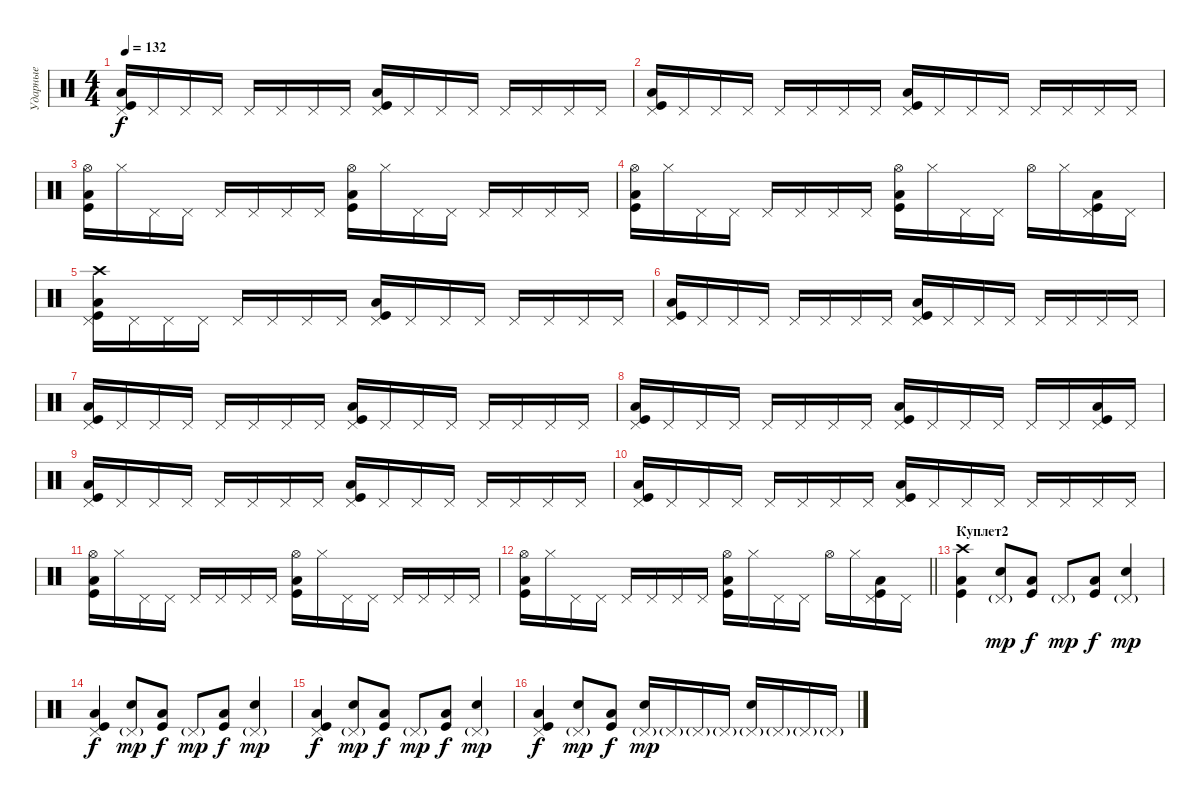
\track ("Ударные" "Ударные") {instrument percussion}
\staff {score}
\articulation defaults
\ts (4 4)
\tempo 132
\clef neutral
\ks c
("Pedal Hi-Hat (hit)" "Low Tom (hit)" "Kick (hit)").16{dy f} "Pedal Hi-Hat (hit)".16 "Pedal Hi-Hat (hit)".16 "Pedal Hi-Hat (hit)".16 "Pedal Hi-Hat (hit)".16 "Pedal Hi-Hat (hit)".16 "Pedal Hi-Hat (hit)".16 "Pedal Hi-Hat (hit)".16 ("Pedal Hi-Hat (hit)" "Low Tom (hit)" "Kick (hit)").16 "Pedal Hi-Hat (hit)".16 "Pedal Hi-Hat (hit)".16 "Pedal Hi-Hat (hit)".16 "Pedal Hi-Hat (hit)".16 "Pedal Hi-Hat (hit)".16 "Pedal Hi-Hat (hit)".16 "Pedal Hi-Hat (hit)".16 |
("Pedal Hi-Hat (hit)" "Low Tom (hit)" "Kick (hit)").16 "Pedal Hi-Hat (hit)".16 "Pedal Hi-Hat (hit)".16 "Pedal Hi-Hat (hit)".16 "Pedal Hi-Hat (hit)".16 "Pedal Hi-Hat (hit)".16 "Pedal Hi-Hat (hit)".16 "Pedal Hi-Hat (hit)".16 ("Pedal Hi-Hat (hit)" "Low Tom (hit)" "Kick (hit)").16 "Pedal Hi-Hat (hit)".16 "Pedal Hi-Hat (hit)".16 "Pedal Hi-Hat (hit)".16 "Pedal Hi-Hat (hit)".16 "Pedal Hi-Hat (hit)".16 "Pedal Hi-Hat (hit)".16 "Pedal Hi-Hat (hit)".16 |
("Hi-Hat (open)" "Low Tom (hit)" "Kick (hit)").16 "Hi-Hat (closed)".16 "Pedal Hi-Hat (hit)".16 "Pedal Hi-Hat (hit)".16 "Pedal Hi-Hat (hit)".16 "Pedal Hi-Hat (hit)".16 "Pedal Hi-Hat (hit)".16 "Pedal Hi-Hat (hit)".16 ("Hi-Hat (open)" "Low Tom (hit)" "Kick (hit)").16 "Hi-Hat (closed)".16 "Pedal Hi-Hat (hit)".16 "Pedal Hi-Hat (hit)".16 "Pedal Hi-Hat (hit)".16 "Pedal Hi-Hat (hit)".16 "Pedal Hi-Hat (hit)".16 "Pedal Hi-Hat (hit)".16 |
("Hi-Hat (open)" "Low Tom (hit)" "Kick (hit)").16 "Hi-Hat (closed)".16 "Pedal Hi-Hat (hit)".16 "Pedal Hi-Hat (hit)".16 "Pedal Hi-Hat (hit)".16 "Pedal Hi-Hat (hit)".16 "Pedal Hi-Hat (hit)".16 "Pedal Hi-Hat (hit)".16 ("Hi-Hat (open)" "Low Tom (hit)" "Kick (hit)").16 "Hi-Hat (closed)".16 "Pedal Hi-Hat (hit)".16 "Pedal Hi-Hat (hit)".16 "Hi-Hat (open)".16 "Hi-Hat (closed)".16 ("Pedal Hi-Hat (hit)" "Low Tom (hit)" "Kick (hit)").16 "Pedal Hi-Hat (hit)".16 |
("Pedal Hi-Hat (hit)" "Crash high (hit)" "Low Tom (hit)" "Kick (hit)").16 "Pedal Hi-Hat (hit)".16 "Pedal Hi-Hat (hit)".16 "Pedal Hi-Hat (hit)".16 "Pedal Hi-Hat (hit)".16 "Pedal Hi-Hat (hit)".16 "Pedal Hi-Hat (hit)".16 "Pedal Hi-Hat (hit)".16 ("Pedal Hi-Hat (hit)" "Low Tom (hit)" "Kick (hit)").16 "Pedal Hi-Hat (hit)".16 "Pedal Hi-Hat (hit)".16 "Pedal Hi-Hat (hit)".16 "Pedal Hi-Hat (hit)".16 "Pedal Hi-Hat (hit)".16 "Pedal Hi-Hat (hit)".16 "Pedal Hi-Hat (hit)".16 |
("Pedal Hi-Hat (hit)" "Low Tom (hit)" "Kick (hit)").16 "Pedal Hi-Hat (hit)".16 "Pedal Hi-Hat (hit)".16 "Pedal Hi-Hat (hit)".16 "Pedal Hi-Hat (hit)".16 "Pedal Hi-Hat (hit)".16 "Pedal Hi-Hat (hit)".16 "Pedal Hi-Hat (hit)".16 ("Pedal Hi-Hat (hit)" "Low Tom (hit)" "Kick (hit)").16 "Pedal Hi-Hat (hit)".16 "Pedal Hi-Hat (hit)".16 "Pedal Hi-Hat (hit)".16 "Pedal Hi-Hat (hit)".16 "Pedal Hi-Hat (hit)".16 "Pedal Hi-Hat (hit)".16 "Pedal Hi-Hat (hit)".16 |
("Pedal Hi-Hat (hit)" "Low Tom (hit)" "Kick (hit)").16 "Pedal Hi-Hat (hit)".16 "Pedal Hi-Hat (hit)".16 "Pedal Hi-Hat (hit)".16 "Pedal Hi-Hat (hit)".16 "Pedal Hi-Hat (hit)".16 "Pedal Hi-Hat (hit)".16 "Pedal Hi-Hat (hit)".16 ("Pedal Hi-Hat (hit)" "Low Tom (hit)" "Kick (hit)").16 "Pedal Hi-Hat (hit)".16 "Pedal Hi-Hat (hit)".16 "Pedal Hi-Hat (hit)".16 "Pedal Hi-Hat (hit)".16 "Pedal Hi-Hat (hit)".16 "Pedal Hi-Hat (hit)".16 "Pedal Hi-Hat (hit)".16 |
("Pedal Hi-Hat (hit)" "Low Tom (hit)" "Kick (hit)").16 "Pedal Hi-Hat (hit)".16 "Pedal Hi-Hat (hit)".16 "Pedal Hi-Hat (hit)".16 "Pedal Hi-Hat (hit)".16 "Pedal Hi-Hat (hit)".16 "Pedal Hi-Hat (hit)".16 "Pedal Hi-Hat (hit)".16 ("Pedal Hi-Hat (hit)" "Low Tom (hit)" "Kick (hit)").16 "Pedal Hi-Hat (hit)".16 "Pedal Hi-Hat (hit)".16 "Pedal Hi-Hat (hit)".16 "Pedal Hi-Hat (hit)".16 "Pedal Hi-Hat (hit)".16 ("Pedal Hi-Hat (hit)" "Low Tom (hit)" "Kick (hit)").16 "Pedal Hi-Hat (hit)".16 |
("Pedal Hi-Hat (hit)" "Low Tom (hit)" "Kick (hit)").16 "Pedal Hi-Hat (hit)".16 "Pedal Hi-Hat (hit)".16 "Pedal Hi-Hat (hit)".16 "Pedal Hi-Hat (hit)".16 "Pedal Hi-Hat (hit)".16 "Pedal Hi-Hat (hit)".16 "Pedal Hi-Hat (hit)".16 ("Pedal Hi-Hat (hit)" "Low Tom (hit)" "Kick (hit)").16 "Pedal Hi-Hat (hit)".16 "Pedal Hi-Hat (hit)".16 "Pedal Hi-Hat (hit)".16 "Pedal Hi-Hat (hit)".16 "Pedal Hi-Hat (hit)".16 "Pedal Hi-Hat (hit)".16 "Pedal Hi-Hat (hit)".16 |
("Pedal Hi-Hat (hit)" "Low Tom (hit)" "Kick (hit)").16 "Pedal Hi-Hat (hit)".16 "Pedal Hi-Hat (hit)".16 "Pedal Hi-Hat (hit)".16 "Pedal Hi-Hat (hit)".16 "Pedal Hi-Hat (hit)".16 "Pedal Hi-Hat (hit)".16 "Pedal Hi-Hat (hit)".16 ("Pedal Hi-Hat (hit)" "Low Tom (hit)" "Kick (hit)").16 "Pedal Hi-Hat (hit)".16 "Pedal Hi-Hat (hit)".16 "Pedal Hi-Hat (hit)".16 "Pedal Hi-Hat (hit)".16 "Pedal Hi-Hat (hit)".16 "Pedal Hi-Hat (hit)".16 "Pedal Hi-Hat (hit)".16 |
("Hi-Hat (open)" "Low Tom (hit)" "Kick (hit)").16 "Hi-Hat (closed)".16 "Pedal Hi-Hat (hit)".16 "Pedal Hi-Hat (hit)".16 "Pedal Hi-Hat (hit)".16 "Pedal Hi-Hat (hit)".16 "Pedal Hi-Hat (hit)".16 "Pedal Hi-Hat (hit)".16 ("Hi-Hat (open)" "Low Tom (hit)" "Kick (hit)").16 "Hi-Hat (closed)".16 "Pedal Hi-Hat (hit)".16 "Pedal Hi-Hat (hit)".16 "Pedal Hi-Hat (hit)".16 "Pedal Hi-Hat (hit)".16 "Pedal Hi-Hat (hit)".16 "Pedal Hi-Hat (hit)".16 |
\barLineRight lightlight
("Hi-Hat (open)" "Low Tom (hit)" "Kick (hit)").16 "Hi-Hat (closed)".16 "Pedal Hi-Hat (hit)".16 "Pedal Hi-Hat (hit)".16 "Pedal Hi-Hat (hit)".16 "Pedal Hi-Hat (hit)".16 "Pedal Hi-Hat (hit)".16 "Pedal Hi-Hat (hit)".16 ("Hi-Hat (open)" "Low Tom (hit)" "Kick (hit)").16 "Hi-Hat (closed)".16 "Pedal Hi-Hat (hit)".16 "Pedal Hi-Hat (hit)".16 "Hi-Hat (open)".16 "Hi-Hat (closed)".16 ("Pedal Hi-Hat (hit)" "Low Tom (hit)" "Kick (hit)").16 "Pedal Hi-Hat (hit)".16 |
\section ("" "Куплет2")
("Crash high (hit)" "Low Tom (hit)" "Kick (hit)").4 ("Pedal Hi-Hat (hit)"{g} "Electric Snare (hit)").8{dy mp} ("Low Tom (hit)" "Kick (hit)").8{dy f} "Pedal Hi-Hat (hit)"{g}.8{dy mp} ("Low Tom (hit)" "Kick (hit)").8{dy f} ("Pedal Hi-Hat (hit)"{g} "Electric Snare (hit)").4{dy mp} |
("Pedal Hi-Hat (hit)" "Low Tom (hit)" "Kick (hit)").4{dy f} ("Pedal Hi-Hat (hit)"{g} "Electric Snare (hit)").8{dy mp} ("Low Tom (hit)" "Kick (hit)").8{dy f} "Pedal Hi-Hat (hit)"{g}.8{dy mp} ("Low Tom (hit)" "Kick (hit)").8{dy f} ("Pedal Hi-Hat (hit)"{g} "Electric Snare (hit)").4{dy mp} |
("Pedal Hi-Hat (hit)" "Low Tom (hit)" "Kick (hit)").4{dy f} ("Pedal Hi-Hat (hit)"{g} "Electric Snare (hit)").8{dy mp} ("Low Tom (hit)" "Kick (hit)").8{dy f} "Pedal Hi-Hat (hit)"{g}.8{dy mp} ("Low Tom (hit)" "Kick (hit)").8{dy f} ("Pedal Hi-Hat (hit)"{g} "Electric Snare (hit)").4{dy mp} |
("Pedal Hi-Hat (hit)" "Low Tom (hit)" "Kick (hit)").4{dy f} ("Pedal Hi-Hat (hit)"{g} "Electric Snare (hit)").8{dy mp} ("Low Tom (hit)" "Kick (hit)").8{dy f} ("Pedal Hi-Hat (hit)"{g} "Electric Snare (hit)").16{dy mp} "Pedal Hi-Hat (hit)"{g}.16 "Pedal Hi-Hat (hit)"{g}.16 "Pedal Hi-Hat (hit)"{g}.16 ("Pedal Hi-Hat (hit)"{g} "Electric Snare (hit)").16 "Pedal Hi-Hat (hit)"{g}.16 "Pedal Hi-Hat (hit)"{g}.16 "Pedal Hi-Hat (hit)"{g}.16
